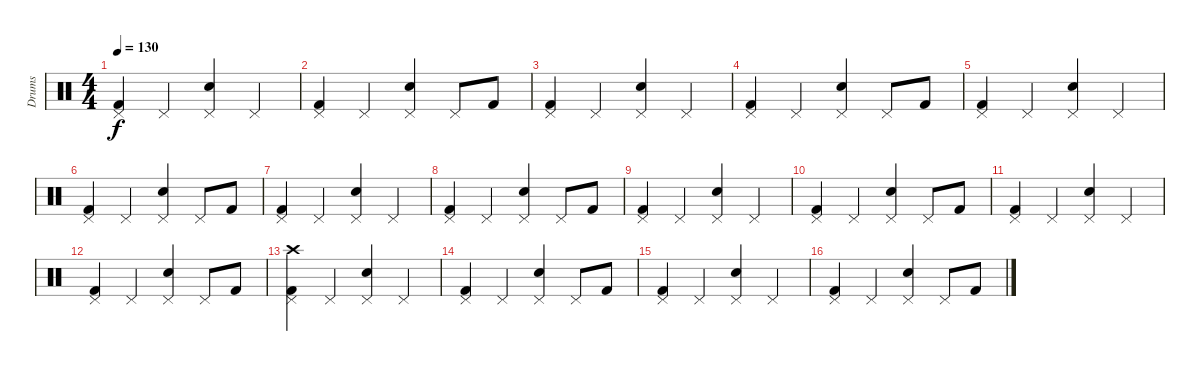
\track ("Drums" "Drums") {instrument percussion}
\staff {score}
\articulation defaults
\ts (4 4)
\tempo 130
\clef neutral
\ks c
("Pedal Hi-Hat (hit)" "Kick (hit) 2").4{dy f} "Pedal Hi-Hat (hit)".4 ("Pedal Hi-Hat (hit)" "Snare (hit) 2").4 "Pedal Hi-Hat (hit)".4 |
("Pedal Hi-Hat (hit)" "Kick (hit) 2").4 "Pedal Hi-Hat (hit)".4 ("Pedal Hi-Hat (hit)" "Snare (hit) 2").4 "Pedal Hi-Hat (hit)".8 "Kick (hit) 2".8 |
("Pedal Hi-Hat (hit)" "Kick (hit) 2").4 "Pedal Hi-Hat (hit)".4 ("Pedal Hi-Hat (hit)" "Snare (hit) 2").4 "Pedal Hi-Hat (hit)".4 |
("Pedal Hi-Hat (hit)" "Kick (hit) 2").4 "Pedal Hi-Hat (hit)".4 ("Pedal Hi-Hat (hit)" "Snare (hit) 2").4 "Pedal Hi-Hat (hit)".8 "Kick (hit) 2".8 |
("Pedal Hi-Hat (hit)" "Kick (hit) 2").4 "Pedal Hi-Hat (hit)".4 ("Pedal Hi-Hat (hit)" "Snare (hit) 2").4 "Pedal Hi-Hat (hit)".4 |
("Pedal Hi-Hat (hit)" "Kick (hit) 2").4 "Pedal Hi-Hat (hit)".4 ("Pedal Hi-Hat (hit)" "Snare (hit) 2").4 "Pedal Hi-Hat (hit)".8 "Kick (hit) 2".8 |
("Pedal Hi-Hat (hit)" "Kick (hit) 2").4 "Pedal Hi-Hat (hit)".4 ("Pedal Hi-Hat (hit)" "Snare (hit) 2").4 "Pedal Hi-Hat (hit)".4 |
("Pedal Hi-Hat (hit)" "Kick (hit) 2").4 "Pedal Hi-Hat (hit)".4 ("Pedal Hi-Hat (hit)" "Snare (hit) 2").4 "Pedal Hi-Hat (hit)".8 "Kick (hit) 2".8 |
("Pedal Hi-Hat (hit)" "Kick (hit) 2").4 "Pedal Hi-Hat (hit)".4 ("Pedal Hi-Hat (hit)" "Snare (hit) 2").4 "Pedal Hi-Hat (hit)".4 |
("Pedal Hi-Hat (hit)" "Kick (hit) 2").4 "Pedal Hi-Hat (hit)".4 ("Pedal Hi-Hat (hit)" "Snare (hit) 2").4 "Pedal Hi-Hat (hit)".8 "Kick (hit) 2".8 |
("Pedal Hi-Hat (hit)" "Kick (hit) 2").4 "Pedal Hi-Hat (hit)".4 ("Pedal Hi-Hat (hit)" "Snare (hit) 2").4 "Pedal Hi-Hat (hit)".4 |
("Pedal Hi-Hat (hit)" "Kick (hit) 2").4 "Pedal Hi-Hat (hit)".4 ("Pedal Hi-Hat (hit)" "Snare (hit) 2").4 "Pedal Hi-Hat (hit)".8 "Kick (hit) 2".8 |
("Pedal Hi-Hat (hit)" "Crash high (hit)" "Kick (hit) 2").4 "Pedal Hi-Hat (hit)".4 ("Pedal Hi-Hat (hit)" "Snare (hit) 2").4 "Pedal Hi-Hat (hit)".4 |
("Pedal Hi-Hat (hit)" "Kick (hit) 2").4 "Pedal Hi-Hat (hit)".4 ("Pedal Hi-Hat (hit)" "Snare (hit) 2").4 "Pedal Hi-Hat (hit)".8 "Kick (hit) 2".8 |
("Pedal Hi-Hat (hit)" "Kick (hit) 2").4 "Pedal Hi-Hat (hit)".4 ("Pedal Hi-Hat (hit)" "Snare (hit) 2").4 "Pedal Hi-Hat (hit)".4 |
("Pedal Hi-Hat (hit)" "Kick (hit) 2").4 "Pedal Hi-Hat (hit)".4 ("Pedal Hi-Hat (hit)" "Snare (hit) 2").4 "Pedal Hi-Hat (hit)".8 "Kick (hit) 2".8
